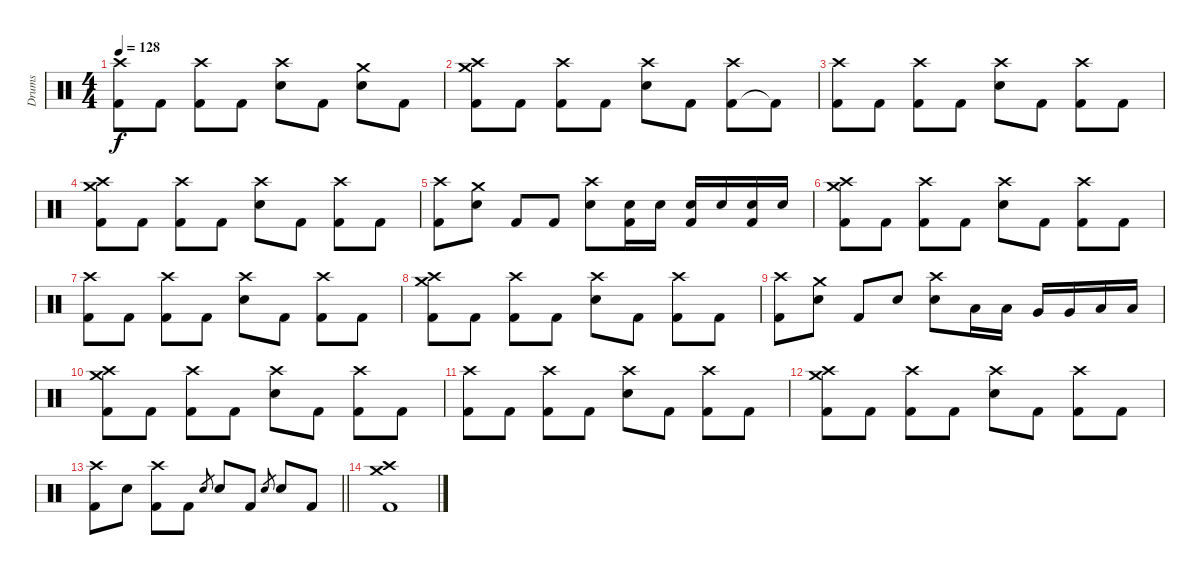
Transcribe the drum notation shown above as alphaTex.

\track ("Drums" "Drums") {instrument percussion}
\staff {score}
\articulation defaults
\ts (4 4)
\tempo 128
\clef neutral
\ks c
("Kick (hit) 2" "Crash high (hit)").8{dy f} "Kick (hit) 2".8 ("Kick (hit) 2" "Crash high (hit)").8 "Kick (hit) 2".8 ("Electric Snare (hit)" "Crash high (hit)").8 "Kick (hit) 2".8 ("Electric Snare (hit)" "Crash medium (hit)").8 "Kick (hit) 2".8 |
("Kick (hit) 2" "Crash medium (hit)" "Crash high (hit)").8 "Kick (hit) 2".8 ("Kick (hit) 2" "Crash high (hit)").8 "Kick (hit) 2".8 ("Electric Snare (hit)" "Crash high (hit)").8 "Kick (hit) 2".8 ("Kick (hit) 2" "Crash high (hit)").8 "Kick (hit) 2"{t}.8 |
("Kick (hit) 2" "Crash high (hit)").8 "Kick (hit) 2".8 ("Kick (hit) 2" "Crash high (hit)").8 "Kick (hit) 2".8 ("Electric Snare (hit)" "Crash high (hit)").8 "Kick (hit) 2".8 ("Kick (hit) 2" "Crash high (hit)").8 "Kick (hit) 2".8 |
("Kick (hit) 2" "Crash medium (hit)" "Crash high (hit)").8 "Kick (hit) 2".8 ("Kick (hit) 2" "Crash high (hit)").8 "Kick (hit) 2".8 ("Electric Snare (hit)" "Crash high (hit)").8 "Kick (hit) 2".8 ("Kick (hit) 2" "Crash high (hit)").8 "Kick (hit) 2".8 |
("Kick (hit) 2" "Crash high (hit)").8 ("Electric Snare (hit)" "Crash medium (hit)").8 "Kick (hit) 2".8 "Kick (hit) 2".8 ("Electric Snare (hit)" "Crash high (hit)").8 ("Electric Snare (hit)" "Kick (hit) 2").16 "Electric Snare (hit)".16 ("Electric Snare (hit)" "Kick (hit) 2").16 "Electric Snare (hit)".16 ("Electric Snare (hit)" "Kick (hit) 2").16 "Electric Snare (hit)".16 |
("Kick (hit) 2" "Crash medium (hit)" "Crash high (hit)").8 "Kick (hit) 2".8 ("Kick (hit) 2" "Crash high (hit)").8 "Kick (hit) 2".8 ("Electric Snare (hit)" "Crash high (hit)").8 "Kick (hit) 2".8 ("Kick (hit) 2" "Crash high (hit)").8 "Kick (hit) 2".8 |
("Kick (hit) 2" "Crash high (hit)").8 "Kick (hit) 2".8 ("Kick (hit) 2" "Crash high (hit)").8 "Kick (hit) 2".8 ("Electric Snare (hit)" "Crash high (hit)").8 "Kick (hit) 2".8 ("Kick (hit) 2" "Crash high (hit)").8 "Kick (hit) 2".8 |
("Kick (hit) 2" "Crash medium (hit)" "Crash high (hit)").8 "Kick (hit) 2".8 ("Kick (hit) 2" "Crash high (hit)").8 "Kick (hit) 2".8 ("Electric Snare (hit)" "Crash high (hit)").8 "Kick (hit) 2".8 ("Kick (hit) 2" "Crash high (hit)").8 "Kick (hit) 2".8 |
("Kick (hit) 2" "Crash high (hit)").8 ("Electric Snare (hit)" "Crash medium (hit)").8 "Kick (hit) 2".8 "Electric Snare (hit)".8 ("Electric Snare (hit)" "Crash high (hit)").8 "Low Tom (hit)".16 "Low Tom (hit)".16 "Very Low Tom (hit)".16 "Very Low Tom (hit)".16 "Low Floor Tom (hit)".16 "Low Floor Tom (hit)".16 |
("Kick (hit) 2" "Crash medium (hit)" "Crash high (hit)").8 "Kick (hit) 2".8 ("Kick (hit) 2" "Crash high (hit)").8 "Kick (hit) 2".8 ("Electric Snare (hit)" "Crash high (hit)").8 "Kick (hit) 2".8 ("Kick (hit) 2" "Crash high (hit)").8 "Kick (hit) 2".8 |
("Kick (hit) 2" "Crash high (hit)").8 "Kick (hit) 2".8 ("Kick (hit) 2" "Crash high (hit)").8 "Kick (hit) 2".8 ("Electric Snare (hit)" "Crash high (hit)").8 "Kick (hit) 2".8 ("Kick (hit) 2" "Crash high (hit)").8 "Kick (hit) 2".8 |
("Kick (hit) 2" "Crash medium (hit)" "Crash high (hit)").8 "Kick (hit) 2".8 ("Kick (hit) 2" "Crash high (hit)").8 "Kick (hit) 2".8 ("Electric Snare (hit)" "Crash high (hit)").8 "Kick (hit) 2".8 ("Kick (hit) 2" "Crash high (hit)").8 "Kick (hit) 2".8 |
\barLineRight lightlight
("Kick (hit) 2" "Crash high (hit)").8 "Electric Snare (hit)".8 ("Kick (hit) 2" "Crash high (hit)").8 "Kick (hit) 2".8 "Electric Snare (hit)".8{gr} "Electric Snare (hit)".8 "Kick (hit) 2".8 "Electric Snare (hit)".8{gr} "Electric Snare (hit)".8 "Kick (hit) 2".8 |
("Kick (hit) 2" "Crash medium (hit)" "Crash high (hit)").1
